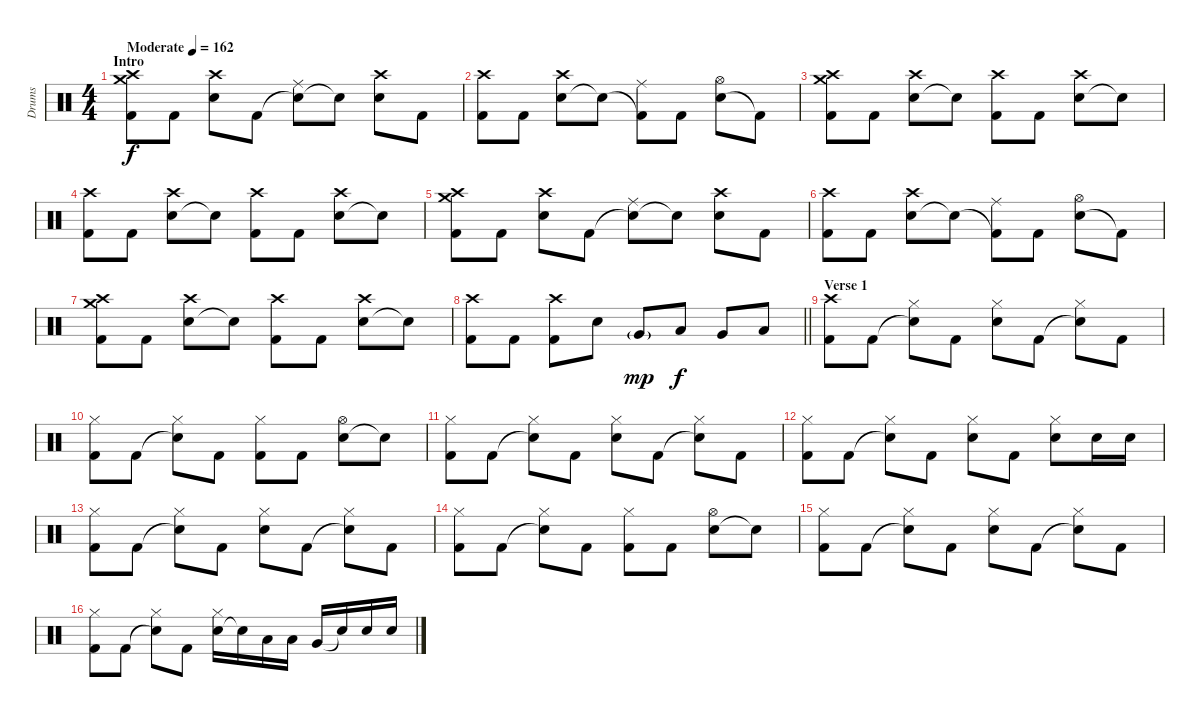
\track ("Drums" "Drums") {instrument percussion}
\staff {score}
\articulation defaults
\ts (4 4)
\section ("" "Intro")
\tempo (162 "Moderate")
\clef neutral
\ks c
("Kick (hit) 2" "Crash medium (hit)" "Crash high (hit)").8{dy f} "Kick (hit) 2".8 ("Electric Snare (hit)" "Crash high (hit)").8 "Kick (hit) 2".8 ("Snare (hit)"{t} "Ride (middle)").8 "Electric Snare (hit)"{t}.8 ("Electric Snare (hit)" "Crash high (hit)").8 "Kick (hit) 2".8 |
("Kick (hit) 2" "Crash high (hit)").8 "Kick (hit) 2".8 ("Electric Snare (hit)" "Crash high (hit)").8 "Snare (hit)"{t}.8 ("Kick (hit) 2"{t} "Ride (middle)").8 "Kick (hit) 2".8 ("Electric Snare (hit)" "Hi-Hat (open)").8 "Kick (hit) 2"{t}.8 |
("Kick (hit) 2" "Crash medium (hit)" "Crash high (hit)").8 "Kick (hit) 2".8 ("Electric Snare (hit)" "Crash high (hit)").8 "Snare (hit)"{t}.8 ("Kick (hit) 2" "Crash high (hit)").8 "Kick (hit) 2".8 ("Electric Snare (hit)" "Crash high (hit)").8 "Snare (hit)"{t}.8 |
("Kick (hit) 2" "Crash high (hit)").8 "Kick (hit) 2".8 ("Electric Snare (hit)" "Crash high (hit)").8 "Snare (hit)"{t}.8 ("Kick (hit) 2" "Crash high (hit)").8 "Kick (hit) 2".8 ("Electric Snare (hit)" "Crash high (hit)").8 "Snare (hit)"{t}.8 |
("Kick (hit) 2" "Crash medium (hit)" "Crash high (hit)").8 "Kick (hit) 2".8 ("Electric Snare (hit)" "Crash high (hit)").8 "Kick (hit) 2".8 ("Snare (hit)"{t} "Ride (middle)").8 "Electric Snare (hit)"{t}.8 ("Electric Snare (hit)" "Crash high (hit)").8 "Kick (hit) 2".8 |
("Kick (hit) 2" "Crash high (hit)").8 "Kick (hit) 2".8 ("Electric Snare (hit)" "Crash high (hit)").8 "Snare (hit)"{t}.8 ("Kick (hit) 2"{t} "Ride (middle)").8 "Kick (hit) 2".8 ("Electric Snare (hit)" "Hi-Hat (open)").8 "Kick (hit) 2"{t}.8 |
("Kick (hit) 2" "Crash medium (hit)" "Crash high (hit)").8 "Kick (hit) 2".8 ("Electric Snare (hit)" "Crash high (hit)").8 "Snare (hit)"{t}.8 ("Kick (hit) 2" "Crash high (hit)").8 "Kick (hit) 2".8 ("Electric Snare (hit)" "Crash high (hit)").8 "Snare (hit)"{t}.8 |
\barLineRight lightlight
("Kick (hit) 2" "Crash high (hit)").8 "Kick (hit) 2".8 ("Kick (hit) 2" "Crash high (hit)").8 "Electric Snare (hit)".8 "Very Low Tom (hit)"{g}.8{dy mp} "Low Tom (hit)".8{dy f} "Very Low Tom (hit)".8 "Low Floor Tom (hit)".8 |
\section ("" "Verse 1")
("Kick (hit) 2" "Crash high (hit)").8 "Kick (hit) 2".8 ("Snare (hit)"{t} "Hi-Hat (closed)").8 "Kick (hit) 2".8 ("Electric Snare (hit)" "Hi-Hat (closed)").8 "Kick (hit) 2".8 ("Snare (hit)"{t} "Hi-Hat (closed)").8 "Kick (hit) 2".8 |
("Kick (hit) 2" "Hi-Hat (closed)").8 "Kick (hit) 2".8 ("Snare (hit)"{t} "Hi-Hat (closed)").8 "Kick (hit) 2".8 ("Kick (hit) 2" "Hi-Hat (closed)").8 "Kick (hit) 2".8 ("Electric Snare (hit)" "Hi-Hat (open)").8 "Snare (hit)"{t}.8 |
("Kick (hit) 2" "Hi-Hat (closed)").8 "Kick (hit) 2".8 ("Snare (hit)"{t} "Hi-Hat (closed)").8 "Kick (hit) 2".8 ("Electric Snare (hit)" "Hi-Hat (closed)").8 "Kick (hit) 2".8 ("Snare (hit)"{t} "Hi-Hat (closed)").8 "Kick (hit) 2".8 |
("Kick (hit) 2" "Hi-Hat (closed)").8 "Kick (hit) 2".8 ("Snare (hit)"{t} "Hi-Hat (closed)").8 "Kick (hit) 2".8 ("Electric Snare (hit)" "Hi-Hat (closed)").8 "Kick (hit) 2".8 ("Electric Snare (hit)" "Hi-Hat (closed)").8 "Electric Snare (hit)".16 "Electric Snare (hit)".16 |
("Kick (hit) 2" "Hi-Hat (closed)").8 "Kick (hit) 2".8 ("Snare (hit)"{t} "Hi-Hat (closed)").8 "Kick (hit) 2".8 ("Electric Snare (hit)" "Hi-Hat (closed)").8 "Kick (hit) 2".8 ("Snare (hit)"{t} "Hi-Hat (closed)").8 "Kick (hit) 2".8 |
("Kick (hit) 2" "Hi-Hat (closed)").8 "Kick (hit) 2".8 ("Snare (hit)"{t} "Hi-Hat (closed)").8 "Kick (hit) 2".8 ("Kick (hit) 2" "Hi-Hat (closed)").8 "Kick (hit) 2".8 ("Electric Snare (hit)" "Hi-Hat (open)").8 "Snare (hit)"{t}.8 |
("Kick (hit) 2" "Hi-Hat (closed)").8 "Kick (hit) 2".8 ("Snare (hit)"{t} "Hi-Hat (closed)").8 "Kick (hit) 2".8 ("Electric Snare (hit)" "Hi-Hat (closed)").8 "Kick (hit) 2".8 ("Snare (hit)"{t} "Hi-Hat (closed)").8 "Kick (hit) 2".8 |
("Kick (hit) 2" "Hi-Hat (closed)").8 "Kick (hit) 2".8 ("Snare (hit)"{t} "Hi-Hat (closed)").8 "Kick (hit) 2".8 ("Electric Snare (hit)" "Hi-Hat (closed)").16 "Snare (hit)"{t}.16 "Low Tom (hit)".16 "Low Tom (hit)".16 "Very Low Tom (hit)".16 "Snare (hit)"{t}.16 "Electric Snare (hit)".16 "Electric Snare (hit)".16
